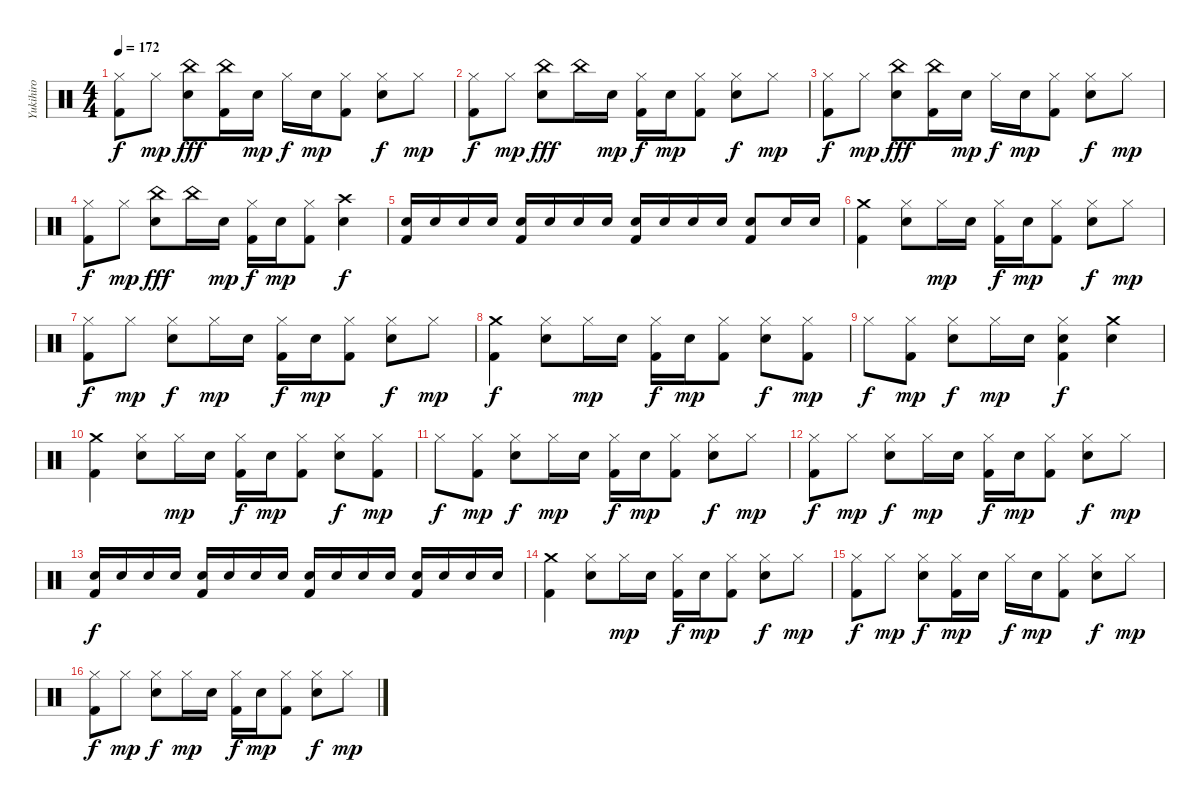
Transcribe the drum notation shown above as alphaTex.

\track ("Yukihiro" "Yukihiro") {instrument percussion}
\staff {score}
\articulation defaults
\ts (4 4)
\tempo 172
\clef neutral
\ks c
("Hi-Hat (closed)" "Kick (hit) 2").8{dy f} "Hi-Hat (closed)".8{dy mp} ("China (hit)" "Electric Snare (hit)").8{dy fff} ("China (hit)" "Kick (hit) 2").16 "Electric Snare (hit)".16{dy mp} "Hi-Hat (closed)".16{dy f} "Electric Snare (hit)".16{dy mp} ("Hi-Hat (closed)" "Kick (hit) 2").8 ("Hi-Hat (closed)" "Electric Snare (hit)").8{dy f} "Hi-Hat (closed)".8{dy mp} |
("Hi-Hat (closed)" "Kick (hit) 2").8{dy f} "Hi-Hat (closed)".8{dy mp} ("China (hit)" "Electric Snare (hit)").8{dy fff} "China (hit)".16 "Electric Snare (hit)".16{dy mp} ("Hi-Hat (closed)" "Kick (hit) 2").16{dy f} "Electric Snare (hit)".16{dy mp} ("Hi-Hat (closed)" "Kick (hit) 2").8 ("Hi-Hat (closed)" "Electric Snare (hit)").8{dy f} "Hi-Hat (closed)".8{dy mp} |
("Hi-Hat (closed)" "Kick (hit) 2").8{dy f} "Hi-Hat (closed)".8{dy mp} ("China (hit)" "Electric Snare (hit)").8{dy fff} ("China (hit)" "Kick (hit) 2").16 "Electric Snare (hit)".16{dy mp} "Hi-Hat (closed)".16{dy f} "Electric Snare (hit)".16{dy mp} ("Hi-Hat (closed)" "Kick (hit) 2").8 ("Hi-Hat (closed)" "Electric Snare (hit)").8{dy f} "Hi-Hat (closed)".8{dy mp} |
("Hi-Hat (closed)" "Kick (hit) 2").8{dy f} "Hi-Hat (closed)".8{dy mp} ("China (hit)" "Electric Snare (hit)").8{dy fff} "China (hit)".16 "Electric Snare (hit)".16{dy mp} ("Hi-Hat (closed)" "Kick (hit) 2").16{dy f} "Electric Snare (hit)".16{dy mp} ("Hi-Hat (closed)" "Kick (hit) 2").8 ("Crash high (hit)" "Electric Snare (hit)").4{dy f} |
("Electric Snare (hit)" "Kick (hit) 2").16 "Electric Snare (hit)".16 "Electric Snare (hit)".16 "Electric Snare (hit)".16 ("Electric Snare (hit)" "Kick (hit) 2").16 "Electric Snare (hit)".16 "Electric Snare (hit)".16 "Electric Snare (hit)".16 ("Electric Snare (hit)" "Kick (hit) 2").16 "Electric Snare (hit)".16 "Electric Snare (hit)".16 "Electric Snare (hit)".16 ("Electric Snare (hit)" "Kick (hit) 2").8 "Electric Snare (hit)".16 "Electric Snare (hit)".16 |
("Crash medium (hit)" "Kick (hit) 2").4 ("Hi-Hat (closed)" "Electric Snare (hit)").8 "Hi-Hat (closed)".16{dy mp} "Electric Snare (hit)".16 ("Hi-Hat (closed)" "Kick (hit) 2").16{dy f} "Electric Snare (hit)".16{dy mp} ("Hi-Hat (closed)" "Kick (hit) 2").8 ("Hi-Hat (closed)" "Electric Snare (hit)").8{dy f} "Hi-Hat (closed)".8{dy mp} |
("Hi-Hat (closed)" "Kick (hit) 2").8{dy f} "Hi-Hat (closed)".8{dy mp} ("Hi-Hat (closed)" "Electric Snare (hit)").8{dy f} "Hi-Hat (closed)".16{dy mp} "Electric Snare (hit)".16 ("Hi-Hat (closed)" "Kick (hit) 2").16{dy f} "Electric Snare (hit)".16{dy mp} ("Hi-Hat (closed)" "Kick (hit) 2").8 ("Hi-Hat (closed)" "Electric Snare (hit)").8{dy f} "Hi-Hat (closed)".8{dy mp} |
("Crash medium (hit)" "Kick (hit) 2").4{dy f} ("Hi-Hat (closed)" "Electric Snare (hit)").8 "Hi-Hat (closed)".16{dy mp} "Electric Snare (hit)".16 ("Hi-Hat (closed)" "Kick (hit) 2").16{dy f} "Electric Snare (hit)".16{dy mp} ("Hi-Hat (closed)" "Kick (hit) 2").8 ("Hi-Hat (closed)" "Electric Snare (hit)").8{dy f} ("Hi-Hat (closed)" "Kick (hit) 2").8{dy mp} |
"Hi-Hat (closed)".8{dy f} ("Hi-Hat (closed)" "Kick (hit) 2").8{dy mp} ("Hi-Hat (closed)" "Electric Snare (hit)").8{dy f} "Hi-Hat (closed)".16{dy mp} "Electric Snare (hit)".16 ("Hi-Hat (closed)" "Electric Snare (hit)" "Kick (hit) 2").4{dy f} ("Crash medium (hit)" "Electric Snare (hit)").4 |
("Crash medium (hit)" "Kick (hit) 2").4 ("Hi-Hat (closed)" "Electric Snare (hit)").8 "Hi-Hat (closed)".16{dy mp} "Electric Snare (hit)".16 ("Hi-Hat (closed)" "Kick (hit) 2").16{dy f} "Electric Snare (hit)".16{dy mp} ("Hi-Hat (closed)" "Kick (hit) 2").8 ("Hi-Hat (closed)" "Electric Snare (hit)").8{dy f} ("Hi-Hat (closed)" "Kick (hit) 2").8{dy mp} |
"Hi-Hat (closed)".8{dy f} ("Hi-Hat (closed)" "Kick (hit) 2").8{dy mp} ("Hi-Hat (closed)" "Electric Snare (hit)").8{dy f} "Hi-Hat (closed)".16{dy mp} "Electric Snare (hit)".16 ("Hi-Hat (closed)" "Kick (hit) 2").16{dy f} "Electric Snare (hit)".16{dy mp} ("Hi-Hat (closed)" "Kick (hit) 2").8 ("Hi-Hat (closed)" "Electric Snare (hit)").8{dy f} "Hi-Hat (closed)".8{dy mp} |
("Hi-Hat (closed)" "Kick (hit) 2").8{dy f} "Hi-Hat (closed)".8{dy mp} ("Hi-Hat (closed)" "Electric Snare (hit)").8{dy f} "Hi-Hat (closed)".16{dy mp} "Electric Snare (hit)".16 ("Hi-Hat (closed)" "Kick (hit) 2").16{dy f} "Electric Snare (hit)".16{dy mp} ("Hi-Hat (closed)" "Kick (hit) 2").8 ("Hi-Hat (closed)" "Electric Snare (hit)").8{dy f} "Hi-Hat (closed)".8{dy mp} |
("Electric Snare (hit)" "Kick (hit) 2").16{dy f} "Electric Snare (hit)".16 "Electric Snare (hit)".16 "Electric Snare (hit)".16 ("Electric Snare (hit)" "Kick (hit) 2").16 "Electric Snare (hit)".16 "Electric Snare (hit)".16 "Electric Snare (hit)".16 ("Electric Snare (hit)" "Kick (hit) 2").16 "Electric Snare (hit)".16 "Electric Snare (hit)".16 "Electric Snare (hit)".16 ("Electric Snare (hit)" "Kick (hit) 2").16 "Electric Snare (hit)".16 "Electric Snare (hit)".16 "Electric Snare (hit)".16 |
("Crash medium (hit)" "Kick (hit) 2").4 ("Hi-Hat (closed)" "Electric Snare (hit)").8 "Hi-Hat (closed)".16{dy mp} "Electric Snare (hit)".16 ("Hi-Hat (closed)" "Kick (hit) 2").16{dy f} "Electric Snare (hit)".16{dy mp} ("Hi-Hat (closed)" "Kick (hit) 2").8 ("Hi-Hat (closed)" "Electric Snare (hit)").8{dy f} "Hi-Hat (closed)".8{dy mp} |
("Hi-Hat (closed)" "Kick (hit) 2").8{dy f} "Hi-Hat (closed)".8{dy mp} ("Hi-Hat (closed)" "Electric Snare (hit)").8{dy f} ("Hi-Hat (closed)" "Kick (hit) 2").16{dy mp} "Electric Snare (hit)".16 "Hi-Hat (closed)".16{dy f} "Electric Snare (hit)".16{dy mp} ("Hi-Hat (closed)" "Kick (hit) 2").8 ("Hi-Hat (closed)" "Electric Snare (hit)").8{dy f} "Hi-Hat (closed)".8{dy mp} |
("Hi-Hat (closed)" "Kick (hit) 2").8{dy f} "Hi-Hat (closed)".8{dy mp} ("Hi-Hat (closed)" "Electric Snare (hit)").8{dy f} "Hi-Hat (closed)".16{dy mp} "Electric Snare (hit)".16 ("Hi-Hat (closed)" "Kick (hit) 2").16{dy f} "Electric Snare (hit)".16{dy mp} ("Hi-Hat (closed)" "Kick (hit) 2").8 ("Hi-Hat (closed)" "Electric Snare (hit)").8{dy f} "Hi-Hat (closed)".8{dy mp}
